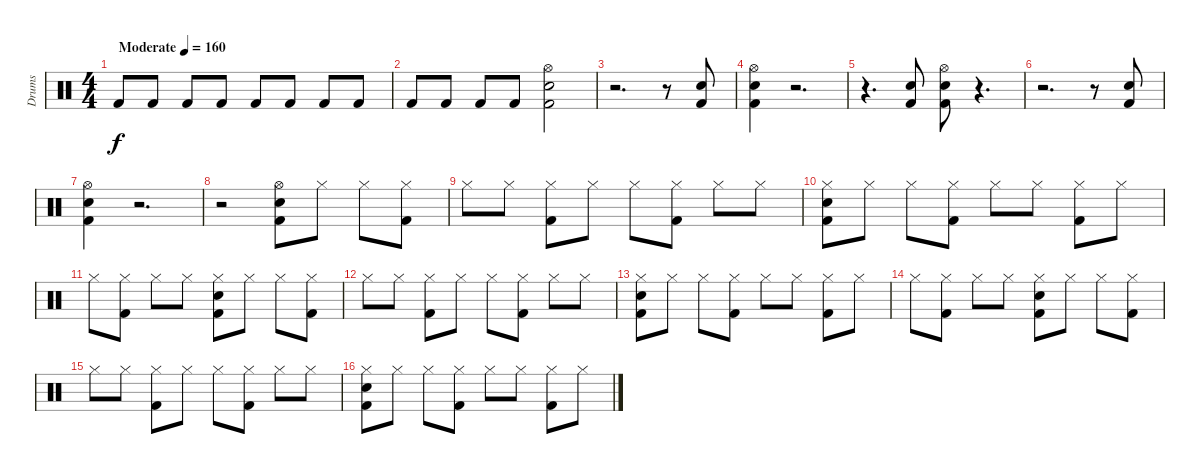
\track ("Drums" "Drums") {instrument percussion}
\staff {score}
\articulation defaults
\ts (4 4)
\tempo (160 "Moderate")
\clef neutral
\ks c "Kick (hit) 2".8{dy f} "Kick (hit) 2".8 "Kick (hit) 2".8 "Kick (hit) 2".8 "Kick (hit) 2".8 "Kick (hit) 2".8 "Kick (hit) 2".8 "Kick (hit) 2".8
|
"Kick (hit) 2".8 "Kick (hit) 2".8 "Kick (hit) 2".8 "Kick (hit) 2".8 ("Kick (hit) 2" "Snare (hit) 2" "Hi-Hat (open)").2 |
r.2{d} r.8 ("Kick (hit) 2" "Snare (hit) 2").8 |
("Kick (hit) 2" "Snare (hit) 2" "Hi-Hat (open)").4 r.2{d} |
r.4{d} ("Kick (hit) 2" "Snare (hit) 2").8 ("Kick (hit) 2" "Snare (hit) 2" "Hi-Hat (open)").8 r.4{d} |
r.2{d} r.8 ("Kick (hit) 2" "Snare (hit) 2").8 |
("Kick (hit) 2" "Snare (hit) 2" "Hi-Hat (open)").4 r.2{d} |
r.2 ("Kick (hit) 2" "Snare (hit) 2" "Hi-Hat (open)").8 "Hi-Hat (closed)".8 "Hi-Hat (closed)".8 ("Kick (hit) 2" "Hi-Hat (closed)").8 |
"Hi-Hat (closed)".8 "Hi-Hat (closed)".8 ("Kick (hit) 2" "Hi-Hat (closed)").8 "Hi-Hat (closed)".8 "Hi-Hat (closed)".8 ("Kick (hit) 2" "Hi-Hat (closed)").8 "Hi-Hat (closed)".8 "Hi-Hat (closed)".8 |
("Kick (hit) 2" "Snare (hit) 2" "Hi-Hat (closed)").8 "Hi-Hat (closed)".8 "Hi-Hat (closed)".8 ("Kick (hit) 2" "Hi-Hat (closed)").8 "Hi-Hat (closed)".8 "Hi-Hat (closed)".8 ("Kick (hit) 2" "Hi-Hat (closed)").8 "Hi-Hat (closed)".8 |
"Hi-Hat (closed)".8 ("Kick (hit) 2" "Hi-Hat (closed)").8 "Hi-Hat (closed)".8 "Hi-Hat (closed)".8 ("Kick (hit) 2" "Snare (hit) 2" "Hi-Hat (closed)").8 "Hi-Hat (closed)".8 "Hi-Hat (closed)".8 ("Kick (hit) 2" "Hi-Hat (closed)").8 |
"Hi-Hat (closed)".8 "Hi-Hat (closed)".8 ("Kick (hit) 2" "Hi-Hat (closed)").8 "Hi-Hat (closed)".8 "Hi-Hat (closed)".8 ("Kick (hit) 2" "Hi-Hat (closed)").8 "Hi-Hat (closed)".8 "Hi-Hat (closed)".8 |
("Kick (hit) 2" "Snare (hit) 2" "Hi-Hat (closed)").8 "Hi-Hat (closed)".8 "Hi-Hat (closed)".8 ("Kick (hit) 2" "Hi-Hat (closed)").8 "Hi-Hat (closed)".8 "Hi-Hat (closed)".8 ("Kick (hit) 2" "Hi-Hat (closed)").8 "Hi-Hat (closed)".8 |
"Hi-Hat (closed)".8 ("Kick (hit) 2" "Hi-Hat (closed)").8 "Hi-Hat (closed)".8 "Hi-Hat (closed)".8 ("Kick (hit) 2" "Snare (hit) 2" "Hi-Hat (closed)").8 "Hi-Hat (closed)".8 "Hi-Hat (closed)".8 ("Kick (hit) 2" "Hi-Hat (closed)").8 |
"Hi-Hat (closed)".8 "Hi-Hat (closed)".8 ("Kick (hit) 2" "Hi-Hat (closed)").8 "Hi-Hat (closed)".8 "Hi-Hat (closed)".8 ("Kick (hit) 2" "Hi-Hat (closed)").8 "Hi-Hat (closed)".8 "Hi-Hat (closed)".8 |
("Kick (hit) 2" "Snare (hit) 2" "Hi-Hat (closed)").8 "Hi-Hat (closed)".8 "Hi-Hat (closed)".8 ("Kick (hit) 2" "Hi-Hat (closed)").8 "Hi-Hat (closed)".8 "Hi-Hat (closed)".8 ("Kick (hit) 2" "Hi-Hat (closed)").8 "Hi-Hat (closed)".8
